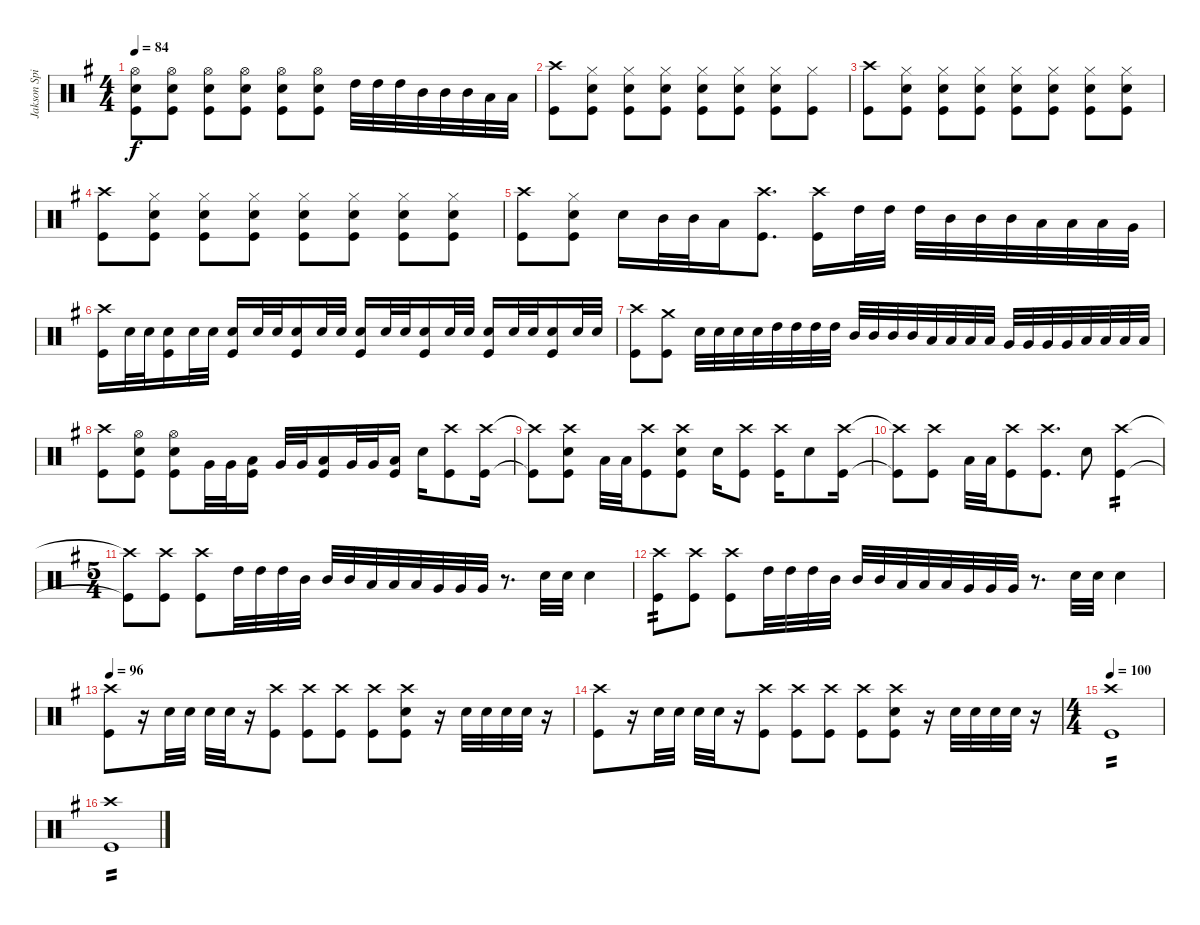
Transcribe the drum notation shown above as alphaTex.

\track ("Jakson Spires Drums" "Jakson Spi") {instrument percussion}
\staff {score}
\articulation defaults
\ts (4 4)
\tempo 84
\clef neutral
\ks g
("Hi-Hat (open)" "Snare (hit) 2" "Kick (hit)").8{dy f} ("Hi-Hat (open)" "Snare (hit) 2" "Kick (hit)").8 ("Hi-Hat (open)" "Snare (hit) 2" "Kick (hit)").8 ("Hi-Hat (open)" "Snare (hit) 2" "Kick (hit)").8 ("Hi-Hat (open)" "Snare (hit) 2" "Kick (hit)").8 ("Hi-Hat (open)" "Snare (hit) 2" "Kick (hit)").8 "High Tom (hit)".32 "High Tom (hit)".32 "High Tom (hit)".32 "Mid Tom (hit)".32 "Mid Tom (hit)".32 "Mid Tom (hit)".32 "Low Tom (hit)".32 "Low Tom (hit)".32 |
("Crash high (hit)" "Kick (hit)").8 ("Hi-Hat (closed)" "Snare (hit) 2" "Kick (hit)").8 ("Hi-Hat (closed)" "Snare (hit) 2" "Kick (hit)").8 ("Hi-Hat (closed)" "Snare (hit) 2" "Kick (hit)").8 ("Hi-Hat (closed)" "Snare (hit) 2" "Kick (hit)").8 ("Hi-Hat (closed)" "Snare (hit) 2" "Kick (hit)").8 ("Hi-Hat (closed)" "Snare (hit) 2" "Kick (hit)").8 ("Hi-Hat (closed)" "Kick (hit)").8 |
("Crash high (hit)" "Kick (hit)").8 ("Hi-Hat (closed)" "Snare (hit) 2" "Kick (hit)").8 ("Hi-Hat (closed)" "Snare (hit) 2" "Kick (hit)").8 ("Hi-Hat (closed)" "Snare (hit) 2" "Kick (hit)").8 ("Hi-Hat (closed)" "Snare (hit) 2" "Kick (hit)").8 ("Hi-Hat (closed)" "Snare (hit) 2" "Kick (hit)").8 ("Hi-Hat (closed)" "Snare (hit) 2" "Kick (hit)").8 ("Hi-Hat (closed)" "Snare (hit) 2" "Kick (hit)").8 |
("Crash high (hit)" "Kick (hit)").8 ("Hi-Hat (closed)" "Snare (hit) 2" "Kick (hit)").8 ("Hi-Hat (closed)" "Snare (hit) 2" "Kick (hit)").8 ("Hi-Hat (closed)" "Snare (hit) 2" "Kick (hit)").8 ("Hi-Hat (closed)" "Snare (hit) 2" "Kick (hit)").8 ("Hi-Hat (closed)" "Snare (hit) 2" "Kick (hit)").8 ("Hi-Hat (closed)" "Snare (hit) 2" "Kick (hit)").8 ("Hi-Hat (closed)" "Snare (hit) 2" "Kick (hit)").8 |
("Crash high (hit)" "Kick (hit)").8 ("Hi-Hat (closed)" "Snare (hit) 2" "Kick (hit)").8 "Snare (hit) 2".16 "Mid Tom (hit)".32 "Mid Tom (hit)".32 "Low Tom (hit)".16 ("Crash high (hit)" "Kick (hit)").8{d} ("Crash high (hit)" "Kick (hit)").16 "High Tom (hit)".32 "High Tom (hit)".32 "High Tom (hit)".32 "Mid Tom (hit)".32 "Mid Tom (hit)".32 "Mid Tom (hit)".32 "Low Tom (hit)".32 "Low Tom (hit)".32 "Low Tom (hit)".32 "Very Low Tom (hit)".32 |
("Crash high (hit)" "Kick (hit)").16 "Snare (hit) 2".32 "Snare (hit) 2".32 ("Snare (hit) 2" "Kick (hit)").16 "Snare (hit) 2".32 "Snare (hit) 2".32 ("Snare (hit) 2" "Kick (hit)").16 "Snare (hit) 2".32 "Snare (hit) 2".32 ("Snare (hit) 2" "Kick (hit)").16 "Snare (hit) 2".32 "Snare (hit) 2".32 ("Snare (hit) 2" "Kick (hit)").16 "Snare (hit) 2".32 "Snare (hit) 2".32 ("Snare (hit) 2" "Kick (hit)").16 "Snare (hit) 2".32 "Snare (hit) 2".32 ("Snare (hit) 2" "Kick (hit)").16 "Snare (hit) 2".32 "Snare (hit) 2".32 ("Snare (hit) 2" "Kick (hit)").16 "Snare (hit) 2".32 "Snare (hit) 2".32 |
("Crash high (hit)" "Kick (hit)").8 ("Crash medium (hit)" "Kick (hit)").8 "Snare (hit) 2".32 "Snare (hit) 2".32 "Snare (hit) 2".32 "Snare (hit) 2".32 "High Tom (hit)".32 "High Tom (hit)".32 "High Tom (hit)".32 "High Tom (hit)".32 "Mid Tom (hit)".32 "Mid Tom (hit)".32 "Mid Tom (hit)".32 "Mid Tom (hit)".32 "Low Tom (hit)".32 "Low Tom (hit)".32 "Low Tom (hit)".32 "Low Tom (hit)".32 "Very Low Tom (hit)".32 "Very Low Tom (hit)".32 "Very Low Tom (hit)".32 "Very Low Tom (hit)".32 "Low Floor Tom (hit)".32 "Low Floor Tom (hit)".32 "Low Floor Tom (hit)".32 "Low Floor Tom (hit)".32 |
("Crash high (hit)" "Kick (hit)").8 ("Hi-Hat (open)" "Snare (hit) 2" "Kick (hit)").8 ("Hi-Hat (open)" "Snare (hit) 2" "Kick (hit)").8 "Very Low Tom (hit)".32 "Very Low Tom (hit)".32 ("Low Floor Tom (hit)" "Kick (hit)").16 "Very Low Tom (hit)".32 "Very Low Tom (hit)".32 ("Low Floor Tom (hit)" "Kick (hit)").16 "Very Low Tom (hit)".32 "Very Low Tom (hit)".32 ("Low Floor Tom (hit)" "Kick (hit)").16 "Snare (hit) 2".16 ("Crash high (hit)" "Kick (hit)").8 ("Crash high (hit)" "Kick (hit)").16 |
("Crash high (hit)"{t} "Kick (hit)"{t}).8 ("Crash high (hit)" "Snare (hit) 2" "Kick (hit)").8 "Low Tom (hit)".32 "Low Tom (hit)".32 ("Crash high (hit)" "Kick (hit)").8 ("Crash high (hit)" "Snare (hit) 2" "Kick (hit)").8 "Snare (hit) 2".16 ("Crash high (hit)" "Kick (hit)").8 ("Crash high (hit)" "Kick (hit)").16 "Snare (hit) 2".8 ("Crash high (hit)" "Kick (hit)").16 |
("Crash high (hit)"{t} "Kick (hit)"{t}).8 ("Crash high (hit)" "Kick (hit)").8 "Low Tom (hit)".32 "Low Tom (hit)".32 ("Crash high (hit)" "Kick (hit)").8 ("Crash high (hit)" "Kick (hit)").8{d} "Snare (hit) 2".8 ("Crash high (hit)" "Kick (hit)").4{tp 2} |
\ts (5 4)
("Crash high (hit)"{t} "Kick (hit)"{t}).8 ("Crash high (hit)" "Kick (hit)").8 ("Crash high (hit)" "Kick (hit)").8 "High Tom (hit)".32 "High Tom (hit)".32 "High Tom (hit)".32 "Mid Tom (hit)".32 "Mid Tom (hit)".32 "Mid Tom (hit)".32 "Low Tom (hit)".32 "Low Tom (hit)".32 "Low Tom (hit)".32 "Very Low Tom (hit)".32 "Very Low Tom (hit)".32 "Very Low Tom (hit)".32 r.8{d} "Snare (hit) 2".32 "Snare (hit) 2".32 "Snare (hit) 2".4 |
("Crash high (hit)" "Kick (hit)").8{tp 2} ("Crash high (hit)" "Kick (hit)").8 ("Crash high (hit)" "Kick (hit)").8 "High Tom (hit)".32 "High Tom (hit)".32 "High Tom (hit)".32 "Mid Tom (hit)".32 "Mid Tom (hit)".32 "Mid Tom (hit)".32 "Low Tom (hit)".32 "Low Tom (hit)".32 "Low Tom (hit)".32 "Very Low Tom (hit)".32 "Very Low Tom (hit)".32 "Very Low Tom (hit)".32 r.8{d} "Snare (hit) 2".32 "Snare (hit) 2".32 "Snare (hit) 2".4 |
\tempo 96
("Crash high (hit)" "Kick (hit)").8 r.16 "Snare (hit) 2".32 "Snare (hit) 2".32 "Snare (hit) 2".32 "Snare (hit) 2".32 r.16 ("Crash high (hit)" "Kick (hit)").8 ("Crash high (hit)" "Kick (hit)").8 ("Crash high (hit)" "Kick (hit)").8 ("Crash high (hit)" "Kick (hit)").8 ("Crash high (hit)" "Snare (hit) 2" "Kick (hit)").8 r.16 "Snare (hit) 2".32 "Snare (hit) 2".32 "Snare (hit) 2".32 "Snare (hit) 2".32 r.16 |
("Crash high (hit)" "Kick (hit)").8 r.16 "Snare (hit) 2".32 "Snare (hit) 2".32 "Snare (hit) 2".32 "Snare (hit) 2".32 r.16 ("Crash high (hit)" "Kick (hit)").8 ("Crash high (hit)" "Kick (hit)").8 ("Crash high (hit)" "Kick (hit)").8 ("Crash high (hit)" "Kick (hit)").8 ("Crash high (hit)" "Snare (hit) 2" "Kick (hit)").8 r.16 "Snare (hit) 2".32 "Snare (hit) 2".32 "Snare (hit) 2".32 "Snare (hit) 2".32 r.16 |
\ts (4 4)
\tempo 100
("Crash high (hit)" "Kick (hit)").1{tp 2} |
("Crash high (hit)" "Kick (hit)").1{tp 2}
